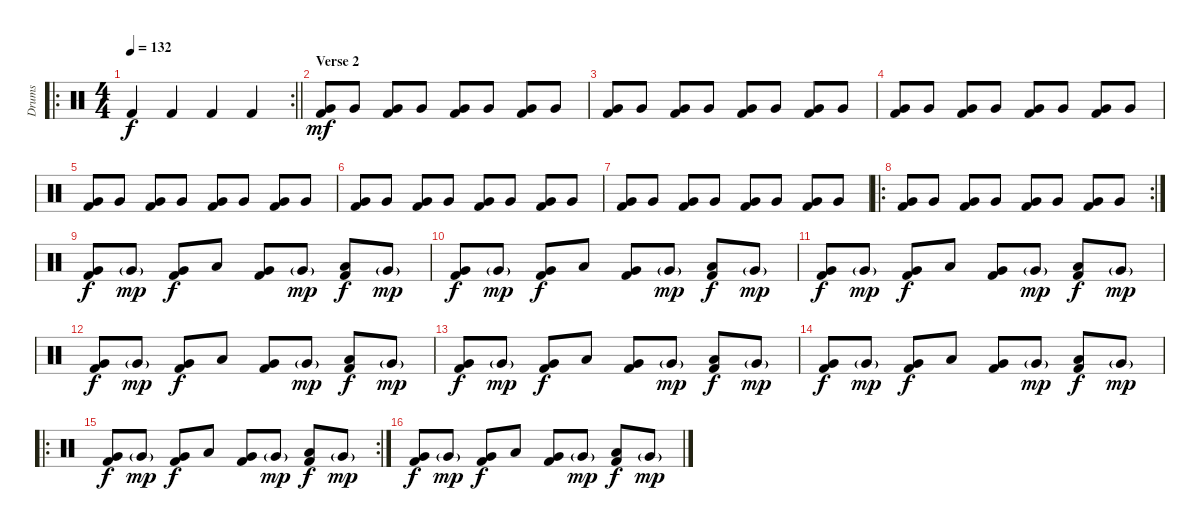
\track ("Drums" "Drums") {instrument percussion}
\staff {score}
\articulation defaults
\ro
\rc 2
\ts (4 4)
\tempo 132
\clef neutral
\barLineRight lightlight
\ks c "Kick (hit) 2".4{dy f} "Kick (hit) 2".4 "Kick (hit) 2".4 "Kick (hit) 2".4
|
\section ("" "Verse 2")
("Very Low Tom (hit)" "Kick (hit) 2").8{dy mf} "Very Low Tom (hit)".8 ("Very Low Tom (hit)" "Kick (hit) 2").8 "Very Low Tom (hit)".8 ("Very Low Tom (hit)" "Kick (hit) 2").8 "Very Low Tom (hit)".8 ("Very Low Tom (hit)" "Kick (hit) 2").8 "Very Low Tom (hit)".8 |
("Very Low Tom (hit)" "Kick (hit) 2").8 "Very Low Tom (hit)".8 ("Very Low Tom (hit)" "Kick (hit) 2").8 "Very Low Tom (hit)".8 ("Very Low Tom (hit)" "Kick (hit) 2").8 "Very Low Tom (hit)".8 ("Very Low Tom (hit)" "Kick (hit) 2").8 "Very Low Tom (hit)".8 |
("Very Low Tom (hit)" "Kick (hit) 2").8 "Very Low Tom (hit)".8 ("Very Low Tom (hit)" "Kick (hit) 2").8 "Very Low Tom (hit)".8 ("Very Low Tom (hit)" "Kick (hit) 2").8 "Very Low Tom (hit)".8 ("Very Low Tom (hit)" "Kick (hit) 2").8 "Very Low Tom (hit)".8 |
("Very Low Tom (hit)" "Kick (hit) 2").8 "Very Low Tom (hit)".8 ("Very Low Tom (hit)" "Kick (hit) 2").8 "Very Low Tom (hit)".8 ("Very Low Tom (hit)" "Kick (hit) 2").8 "Very Low Tom (hit)".8 ("Very Low Tom (hit)" "Kick (hit) 2").8 "Very Low Tom (hit)".8 |
("Very Low Tom (hit)" "Kick (hit) 2").8 "Very Low Tom (hit)".8 ("Very Low Tom (hit)" "Kick (hit) 2").8 "Very Low Tom (hit)".8 ("Very Low Tom (hit)" "Kick (hit) 2").8 "Very Low Tom (hit)".8 ("Very Low Tom (hit)" "Kick (hit) 2").8 "Very Low Tom (hit)".8 |
("Very Low Tom (hit)" "Kick (hit) 2").8 "Very Low Tom (hit)".8 ("Very Low Tom (hit)" "Kick (hit) 2").8 "Very Low Tom (hit)".8 ("Very Low Tom (hit)" "Kick (hit) 2").8 "Very Low Tom (hit)".8 ("Very Low Tom (hit)" "Kick (hit) 2").8 "Very Low Tom (hit)".8 |
\ro
\rc 2
("Very Low Tom (hit)" "Kick (hit) 2").8 "Very Low Tom (hit)".8 ("Very Low Tom (hit)" "Kick (hit) 2").8 "Very Low Tom (hit)".8 ("Very Low Tom (hit)" "Kick (hit) 2").8 "Very Low Tom (hit)".8 ("Very Low Tom (hit)" "Kick (hit) 2").8 "Very Low Tom (hit)".8 |
("Very Low Tom (hit)" "Kick (hit) 2").8{dy f} "Very Low Tom (hit)"{g}.8{dy mp} ("Very Low Tom (hit)" "Kick (hit) 2").8{dy f} "Low Tom (hit)".8 ("Very Low Tom (hit)" "Kick (hit) 2").8 "Very Low Tom (hit)"{g}.8{dy mp} ("Low Tom (hit)" "Kick (hit) 2").8{dy f} "Very Low Tom (hit)"{g}.8{dy mp} |
("Very Low Tom (hit)" "Kick (hit) 2").8{dy f} "Very Low Tom (hit)"{g}.8{dy mp} ("Very Low Tom (hit)" "Kick (hit) 2").8{dy f} "Low Tom (hit)".8 ("Very Low Tom (hit)" "Kick (hit) 2").8 "Very Low Tom (hit)"{g}.8{dy mp} ("Low Tom (hit)" "Kick (hit) 2").8{dy f} "Very Low Tom (hit)"{g}.8{dy mp} |
("Very Low Tom (hit)" "Kick (hit) 2").8{dy f} "Very Low Tom (hit)"{g}.8{dy mp} ("Very Low Tom (hit)" "Kick (hit) 2").8{dy f} "Low Tom (hit)".8 ("Very Low Tom (hit)" "Kick (hit) 2").8 "Very Low Tom (hit)"{g}.8{dy mp} ("Low Tom (hit)" "Kick (hit) 2").8{dy f} "Very Low Tom (hit)"{g}.8{dy mp} |
("Very Low Tom (hit)" "Kick (hit) 2").8{dy f} "Very Low Tom (hit)"{g}.8{dy mp} ("Very Low Tom (hit)" "Kick (hit) 2").8{dy f} "Low Tom (hit)".8 ("Very Low Tom (hit)" "Kick (hit) 2").8 "Very Low Tom (hit)"{g}.8{dy mp} ("Low Tom (hit)" "Kick (hit) 2").8{dy f} "Very Low Tom (hit)"{g}.8{dy mp} |
("Very Low Tom (hit)" "Kick (hit) 2").8{dy f} "Very Low Tom (hit)"{g}.8{dy mp} ("Very Low Tom (hit)" "Kick (hit) 2").8{dy f} "Low Tom (hit)".8 ("Very Low Tom (hit)" "Kick (hit) 2").8 "Very Low Tom (hit)"{g}.8{dy mp} ("Low Tom (hit)" "Kick (hit) 2").8{dy f} "Very Low Tom (hit)"{g}.8{dy mp} |
("Very Low Tom (hit)" "Kick (hit) 2").8{dy f} "Very Low Tom (hit)"{g}.8{dy mp} ("Very Low Tom (hit)" "Kick (hit) 2").8{dy f} "Low Tom (hit)".8 ("Very Low Tom (hit)" "Kick (hit) 2").8 "Very Low Tom (hit)"{g}.8{dy mp} ("Low Tom (hit)" "Kick (hit) 2").8{dy f} "Very Low Tom (hit)"{g}.8{dy mp} |
\ro
\rc 2
("Very Low Tom (hit)" "Kick (hit) 2").8{dy f} "Very Low Tom (hit)"{g}.8{dy mp} ("Very Low Tom (hit)" "Kick (hit) 2").8{dy f} "Low Tom (hit)".8 ("Very Low Tom (hit)" "Kick (hit) 2").8 "Very Low Tom (hit)"{g}.8{dy mp} ("Low Tom (hit)" "Kick (hit) 2").8{dy f} "Very Low Tom (hit)"{g}.8{dy mp} |
("Very Low Tom (hit)" "Kick (hit) 2").8{dy f} "Very Low Tom (hit)"{g}.8{dy mp} ("Very Low Tom (hit)" "Kick (hit) 2").8{dy f} "Low Tom (hit)".8 ("Very Low Tom (hit)" "Kick (hit) 2").8 "Very Low Tom (hit)"{g}.8{dy mp} ("Low Tom (hit)" "Kick (hit) 2").8{dy f} "Very Low Tom (hit)"{g}.8{dy mp}
